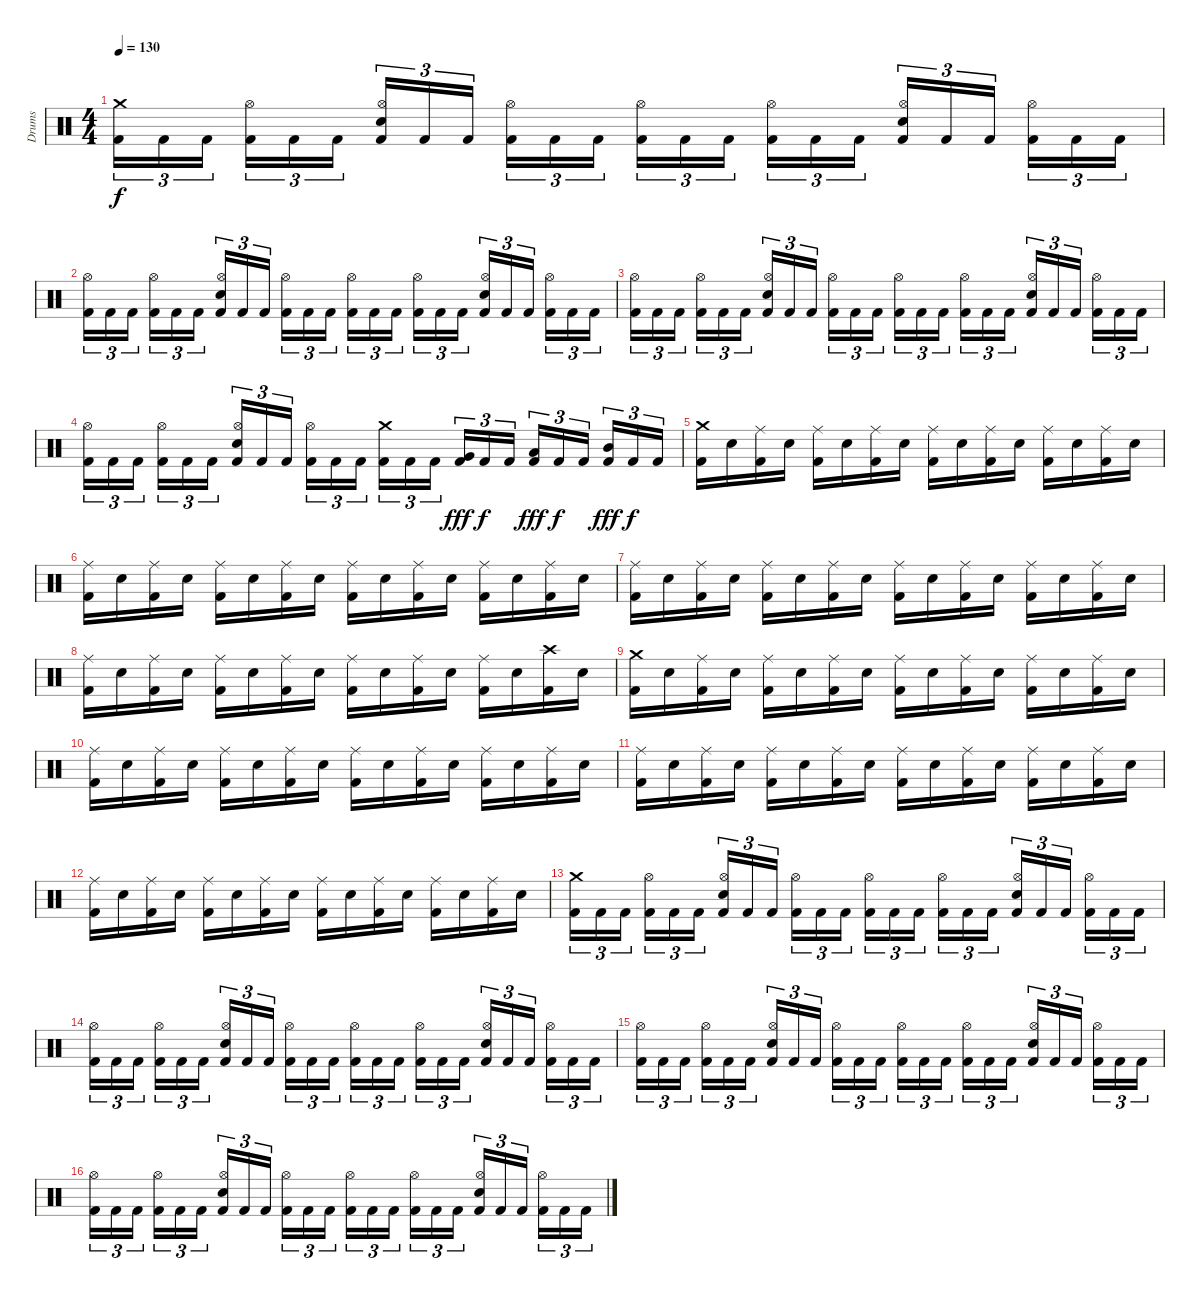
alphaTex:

\track ("Drums" "Drums") {instrument percussion}
\staff {score}
\articulation defaults
\ts (4 4)
\tempo 130
\clef neutral
\ks c
("Kick (hit) 2" "Crash medium (hit)").16{tu (3 2) dy f} "Kick (hit) 2".16{tu (3 2)} "Kick (hit) 2".16{tu (3 2) beam splitsecondary} ("Kick (hit) 2" "Hi-Hat (open)").16{tu (3 2)} "Kick (hit) 2".16{tu (3 2)} "Kick (hit) 2".16{tu (3 2)} ("Kick (hit) 2" "Electric Snare (hit)" "Hi-Hat (open)").16{tu (3 2)} "Kick (hit) 2".16{tu (3 2)} "Kick (hit) 2".16{tu (3 2) beam splitsecondary} ("Kick (hit) 2" "Hi-Hat (open)").16{tu (3 2)} "Kick (hit) 2".16{tu (3 2)} "Kick (hit) 2".16{tu (3 2)} ("Kick (hit) 2" "Hi-Hat (open)").16{tu (3 2)} "Kick (hit) 2".16{tu (3 2)} "Kick (hit) 2".16{tu (3 2) beam splitsecondary} ("Kick (hit) 2" "Hi-Hat (open)").16{tu (3 2)} "Kick (hit) 2".16{tu (3 2)} "Kick (hit) 2".16{tu (3 2)} ("Kick (hit) 2" "Electric Snare (hit)" "Hi-Hat (open)").16{tu (3 2)} "Kick (hit) 2".16{tu (3 2)} "Kick (hit) 2".16{tu (3 2) beam splitsecondary} ("Kick (hit) 2" "Hi-Hat (open)").16{tu (3 2)} "Kick (hit) 2".16{tu (3 2)} "Kick (hit) 2".16{tu (3 2)} |
("Kick (hit) 2" "Hi-Hat (open)").16{tu (3 2)} "Kick (hit) 2".16{tu (3 2)} "Kick (hit) 2".16{tu (3 2) beam splitsecondary} ("Kick (hit) 2" "Hi-Hat (open)").16{tu (3 2)} "Kick (hit) 2".16{tu (3 2)} "Kick (hit) 2".16{tu (3 2)} ("Kick (hit) 2" "Electric Snare (hit)" "Hi-Hat (open)").16{tu (3 2)} "Kick (hit) 2".16{tu (3 2)} "Kick (hit) 2".16{tu (3 2) beam splitsecondary} ("Kick (hit) 2" "Hi-Hat (open)").16{tu (3 2)} "Kick (hit) 2".16{tu (3 2)} "Kick (hit) 2".16{tu (3 2)} ("Kick (hit) 2" "Hi-Hat (open)").16{tu (3 2)} "Kick (hit) 2".16{tu (3 2)} "Kick (hit) 2".16{tu (3 2) beam splitsecondary} ("Kick (hit) 2" "Hi-Hat (open)").16{tu (3 2)} "Kick (hit) 2".16{tu (3 2)} "Kick (hit) 2".16{tu (3 2)} ("Kick (hit) 2" "Electric Snare (hit)" "Hi-Hat (open)").16{tu (3 2)} "Kick (hit) 2".16{tu (3 2)} "Kick (hit) 2".16{tu (3 2) beam splitsecondary} ("Kick (hit) 2" "Hi-Hat (open)").16{tu (3 2)} "Kick (hit) 2".16{tu (3 2)} "Kick (hit) 2".16{tu (3 2)} |
("Kick (hit) 2" "Hi-Hat (open)").16{tu (3 2)} "Kick (hit) 2".16{tu (3 2)} "Kick (hit) 2".16{tu (3 2) beam splitsecondary} ("Kick (hit) 2" "Hi-Hat (open)").16{tu (3 2)} "Kick (hit) 2".16{tu (3 2)} "Kick (hit) 2".16{tu (3 2)} ("Kick (hit) 2" "Electric Snare (hit)" "Hi-Hat (open)").16{tu (3 2)} "Kick (hit) 2".16{tu (3 2)} "Kick (hit) 2".16{tu (3 2) beam splitsecondary} ("Kick (hit) 2" "Hi-Hat (open)").16{tu (3 2)} "Kick (hit) 2".16{tu (3 2)} "Kick (hit) 2".16{tu (3 2)} ("Kick (hit) 2" "Hi-Hat (open)").16{tu (3 2)} "Kick (hit) 2".16{tu (3 2)} "Kick (hit) 2".16{tu (3 2) beam splitsecondary} ("Kick (hit) 2" "Hi-Hat (open)").16{tu (3 2)} "Kick (hit) 2".16{tu (3 2)} "Kick (hit) 2".16{tu (3 2)} ("Kick (hit) 2" "Electric Snare (hit)" "Hi-Hat (open)").16{tu (3 2)} "Kick (hit) 2".16{tu (3 2)} "Kick (hit) 2".16{tu (3 2) beam splitsecondary} ("Kick (hit) 2" "Hi-Hat (open)").16{tu (3 2)} "Kick (hit) 2".16{tu (3 2)} "Kick (hit) 2".16{tu (3 2)} |
("Kick (hit) 2" "Hi-Hat (open)").16{tu (3 2)} "Kick (hit) 2".16{tu (3 2)} "Kick (hit) 2".16{tu (3 2) beam splitsecondary} ("Kick (hit) 2" "Hi-Hat (open)").16{tu (3 2)} "Kick (hit) 2".16{tu (3 2)} "Kick (hit) 2".16{tu (3 2)} ("Kick (hit) 2" "Electric Snare (hit)" "Hi-Hat (open)").16{tu (3 2)} "Kick (hit) 2".16{tu (3 2)} "Kick (hit) 2".16{tu (3 2) beam splitsecondary} ("Kick (hit) 2" "Hi-Hat (open)").16{tu (3 2)} "Kick (hit) 2".16{tu (3 2)} "Kick (hit) 2".16{tu (3 2)} ("Kick (hit) 2" "Crash medium (hit)").16{tu (3 2)} "Kick (hit) 2".16{tu (3 2)} "Kick (hit) 2".16{tu (3 2) beam splitsecondary} ("Kick (hit) 2" "Very Low Tom (hit)").16{tu (3 2) dy fff} "Kick (hit) 2".16{tu (3 2) dy f} "Kick (hit) 2".16{tu (3 2)} ("Kick (hit) 2" "Low Tom (hit)").16{tu (3 2) dy fff} "Kick (hit) 2".16{tu (3 2) dy f} "Kick (hit) 2".16{tu (3 2) beam splitsecondary} ("Kick (hit) 2" "Mid Tom (hit)").16{tu (3 2) dy fff} "Kick (hit) 2".16{tu (3 2) dy f} "Kick (hit) 2".16{tu (3 2)} |
("Kick (hit) 2" "Crash medium (hit)").16 "Electric Snare (hit)".16 ("Kick (hit) 2" "Ride (middle)").16 "Electric Snare (hit)".16 ("Kick (hit) 2" "Ride (middle)").16 "Electric Snare (hit)".16 ("Kick (hit) 2" "Ride (middle)").16 "Electric Snare (hit)".16 ("Kick (hit) 2" "Ride (middle)").16 "Electric Snare (hit)".16 ("Kick (hit) 2" "Ride (middle)").16 "Electric Snare (hit)".16 ("Kick (hit) 2" "Ride (middle)").16 "Electric Snare (hit)".16 ("Kick (hit) 2" "Ride (middle)").16 "Electric Snare (hit)".16 |
("Kick (hit) 2" "Ride (middle)").16 "Electric Snare (hit)".16 ("Kick (hit) 2" "Ride (middle)").16 "Electric Snare (hit)".16 ("Kick (hit) 2" "Ride (middle)").16 "Electric Snare (hit)".16 ("Kick (hit) 2" "Ride (middle)").16 "Electric Snare (hit)".16 ("Kick (hit) 2" "Ride (middle)").16 "Electric Snare (hit)".16 ("Kick (hit) 2" "Ride (middle)").16 "Electric Snare (hit)".16 ("Kick (hit) 2" "Ride (middle)").16 "Electric Snare (hit)".16 ("Kick (hit) 2" "Ride (middle)").16 "Electric Snare (hit)".16 |
("Kick (hit) 2" "Ride (middle)").16 "Electric Snare (hit)".16 ("Kick (hit) 2" "Ride (middle)").16 "Electric Snare (hit)".16 ("Kick (hit) 2" "Ride (middle)").16 "Electric Snare (hit)".16 ("Kick (hit) 2" "Ride (middle)").16 "Electric Snare (hit)".16 ("Kick (hit) 2" "Ride (middle)").16 "Electric Snare (hit)".16 ("Kick (hit) 2" "Ride (middle)").16 "Electric Snare (hit)".16 ("Kick (hit) 2" "Ride (middle)").16 "Electric Snare (hit)".16 ("Kick (hit) 2" "Ride (middle)").16 "Electric Snare (hit)".16 |
("Kick (hit) 2" "Ride (middle)").16 "Electric Snare (hit)".16 ("Kick (hit) 2" "Ride (middle)").16 "Electric Snare (hit)".16 ("Kick (hit) 2" "Ride (middle)").16 "Electric Snare (hit)".16 ("Kick (hit) 2" "Ride (middle)").16 "Electric Snare (hit)".16 ("Kick (hit) 2" "Ride (middle)").16 "Electric Snare (hit)".16 ("Kick (hit) 2" "Ride (middle)").16 "Electric Snare (hit)".16 ("Kick (hit) 2" "Ride (middle)").16 "Electric Snare (hit)".16 ("Kick (hit) 2" "Crash high (hit)").16 "Electric Snare (hit)".16 |
("Kick (hit) 2" "Crash medium (hit)").16 "Electric Snare (hit)".16 ("Kick (hit) 2" "Ride (middle)").16 "Electric Snare (hit)".16 ("Kick (hit) 2" "Ride (middle)").16 "Electric Snare (hit)".16 ("Kick (hit) 2" "Ride (middle)").16 "Electric Snare (hit)".16 ("Kick (hit) 2" "Ride (middle)").16 "Electric Snare (hit)".16 ("Kick (hit) 2" "Ride (middle)").16 "Electric Snare (hit)".16 ("Kick (hit) 2" "Ride (middle)").16 "Electric Snare (hit)".16 ("Kick (hit) 2" "Ride (middle)").16 "Electric Snare (hit)".16 |
("Kick (hit) 2" "Ride (middle)").16 "Electric Snare (hit)".16 ("Kick (hit) 2" "Ride (middle)").16 "Electric Snare (hit)".16 ("Kick (hit) 2" "Ride (middle)").16 "Electric Snare (hit)".16 ("Kick (hit) 2" "Ride (middle)").16 "Electric Snare (hit)".16 ("Kick (hit) 2" "Ride (middle)").16 "Electric Snare (hit)".16 ("Kick (hit) 2" "Ride (middle)").16 "Electric Snare (hit)".16 ("Kick (hit) 2" "Ride (middle)").16 "Electric Snare (hit)".16 ("Kick (hit) 2" "Ride (middle)").16 "Electric Snare (hit)".16 |
("Kick (hit) 2" "Ride (middle)").16 "Electric Snare (hit)".16 ("Kick (hit) 2" "Ride (middle)").16 "Electric Snare (hit)".16 ("Kick (hit) 2" "Ride (middle)").16 "Electric Snare (hit)".16 ("Kick (hit) 2" "Ride (middle)").16 "Electric Snare (hit)".16 ("Kick (hit) 2" "Ride (middle)").16 "Electric Snare (hit)".16 ("Kick (hit) 2" "Ride (middle)").16 "Electric Snare (hit)".16 ("Kick (hit) 2" "Ride (middle)").16 "Electric Snare (hit)".16 ("Kick (hit) 2" "Ride (middle)").16 "Electric Snare (hit)".16 |
("Kick (hit) 2" "Ride (middle)").16 "Electric Snare (hit)".16 ("Kick (hit) 2" "Ride (middle)").16 "Electric Snare (hit)".16 ("Kick (hit) 2" "Ride (middle)").16 "Electric Snare (hit)".16 ("Kick (hit) 2" "Ride (middle)").16 "Electric Snare (hit)".16 ("Kick (hit) 2" "Ride (middle)").16 "Electric Snare (hit)".16 ("Kick (hit) 2" "Ride (middle)").16 "Electric Snare (hit)".16 ("Kick (hit) 2" "Ride (middle)").16 "Electric Snare (hit)".16 ("Kick (hit) 2" "Ride (middle)").16 "Electric Snare (hit)".16 |
("Kick (hit) 2" "Crash medium (hit)").16{tu (3 2)} "Kick (hit) 2".16{tu (3 2)} "Kick (hit) 2".16{tu (3 2) beam splitsecondary} ("Kick (hit) 2" "Hi-Hat (open)").16{tu (3 2)} "Kick (hit) 2".16{tu (3 2)} "Kick (hit) 2".16{tu (3 2)} ("Kick (hit) 2" "Electric Snare (hit)" "Hi-Hat (open)").16{tu (3 2)} "Kick (hit) 2".16{tu (3 2)} "Kick (hit) 2".16{tu (3 2) beam splitsecondary} ("Kick (hit) 2" "Hi-Hat (open)").16{tu (3 2)} "Kick (hit) 2".16{tu (3 2)} "Kick (hit) 2".16{tu (3 2)} ("Kick (hit) 2" "Hi-Hat (open)").16{tu (3 2)} "Kick (hit) 2".16{tu (3 2)} "Kick (hit) 2".16{tu (3 2) beam splitsecondary} ("Kick (hit) 2" "Hi-Hat (open)").16{tu (3 2)} "Kick (hit) 2".16{tu (3 2)} "Kick (hit) 2".16{tu (3 2)} ("Kick (hit) 2" "Electric Snare (hit)" "Hi-Hat (open)").16{tu (3 2)} "Kick (hit) 2".16{tu (3 2)} "Kick (hit) 2".16{tu (3 2) beam splitsecondary} ("Kick (hit) 2" "Hi-Hat (open)").16{tu (3 2)} "Kick (hit) 2".16{tu (3 2)} "Kick (hit) 2".16{tu (3 2)} |
("Kick (hit) 2" "Hi-Hat (open)").16{tu (3 2)} "Kick (hit) 2".16{tu (3 2)} "Kick (hit) 2".16{tu (3 2) beam splitsecondary} ("Kick (hit) 2" "Hi-Hat (open)").16{tu (3 2)} "Kick (hit) 2".16{tu (3 2)} "Kick (hit) 2".16{tu (3 2)} ("Kick (hit) 2" "Electric Snare (hit)" "Hi-Hat (open)").16{tu (3 2)} "Kick (hit) 2".16{tu (3 2)} "Kick (hit) 2".16{tu (3 2) beam splitsecondary} ("Kick (hit) 2" "Hi-Hat (open)").16{tu (3 2)} "Kick (hit) 2".16{tu (3 2)} "Kick (hit) 2".16{tu (3 2)} ("Kick (hit) 2" "Hi-Hat (open)").16{tu (3 2)} "Kick (hit) 2".16{tu (3 2)} "Kick (hit) 2".16{tu (3 2) beam splitsecondary} ("Kick (hit) 2" "Hi-Hat (open)").16{tu (3 2)} "Kick (hit) 2".16{tu (3 2)} "Kick (hit) 2".16{tu (3 2)} ("Kick (hit) 2" "Electric Snare (hit)" "Hi-Hat (open)").16{tu (3 2)} "Kick (hit) 2".16{tu (3 2)} "Kick (hit) 2".16{tu (3 2) beam splitsecondary} ("Kick (hit) 2" "Hi-Hat (open)").16{tu (3 2)} "Kick (hit) 2".16{tu (3 2)} "Kick (hit) 2".16{tu (3 2)} |
("Kick (hit) 2" "Hi-Hat (open)").16{tu (3 2)} "Kick (hit) 2".16{tu (3 2)} "Kick (hit) 2".16{tu (3 2) beam splitsecondary} ("Kick (hit) 2" "Hi-Hat (open)").16{tu (3 2)} "Kick (hit) 2".16{tu (3 2)} "Kick (hit) 2".16{tu (3 2)} ("Kick (hit) 2" "Electric Snare (hit)" "Hi-Hat (open)").16{tu (3 2)} "Kick (hit) 2".16{tu (3 2)} "Kick (hit) 2".16{tu (3 2) beam splitsecondary} ("Kick (hit) 2" "Hi-Hat (open)").16{tu (3 2)} "Kick (hit) 2".16{tu (3 2)} "Kick (hit) 2".16{tu (3 2)} ("Kick (hit) 2" "Hi-Hat (open)").16{tu (3 2)} "Kick (hit) 2".16{tu (3 2)} "Kick (hit) 2".16{tu (3 2) beam splitsecondary} ("Kick (hit) 2" "Hi-Hat (open)").16{tu (3 2)} "Kick (hit) 2".16{tu (3 2)} "Kick (hit) 2".16{tu (3 2)} ("Kick (hit) 2" "Electric Snare (hit)" "Hi-Hat (open)").16{tu (3 2)} "Kick (hit) 2".16{tu (3 2)} "Kick (hit) 2".16{tu (3 2) beam splitsecondary} ("Kick (hit) 2" "Hi-Hat (open)").16{tu (3 2)} "Kick (hit) 2".16{tu (3 2)} "Kick (hit) 2".16{tu (3 2)} |
("Kick (hit) 2" "Hi-Hat (open)").16{tu (3 2)} "Kick (hit) 2".16{tu (3 2)} "Kick (hit) 2".16{tu (3 2) beam splitsecondary} ("Kick (hit) 2" "Hi-Hat (open)").16{tu (3 2)} "Kick (hit) 2".16{tu (3 2)} "Kick (hit) 2".16{tu (3 2)} ("Kick (hit) 2" "Electric Snare (hit)" "Hi-Hat (open)").16{tu (3 2)} "Kick (hit) 2".16{tu (3 2)} "Kick (hit) 2".16{tu (3 2) beam splitsecondary} ("Kick (hit) 2" "Hi-Hat (open)").16{tu (3 2)} "Kick (hit) 2".16{tu (3 2)} "Kick (hit) 2".16{tu (3 2)} ("Kick (hit) 2" "Hi-Hat (open)").16{tu (3 2)} "Kick (hit) 2".16{tu (3 2)} "Kick (hit) 2".16{tu (3 2) beam splitsecondary} ("Kick (hit) 2" "Hi-Hat (open)").16{tu (3 2)} "Kick (hit) 2".16{tu (3 2)} "Kick (hit) 2".16{tu (3 2)} ("Kick (hit) 2" "Electric Snare (hit)" "Hi-Hat (open)").16{tu (3 2)} "Kick (hit) 2".16{tu (3 2)} "Kick (hit) 2".16{tu (3 2) beam splitsecondary} ("Kick (hit) 2" "Hi-Hat (open)").16{tu (3 2)} "Kick (hit) 2".16{tu (3 2)} "Kick (hit) 2".16{tu (3 2)}
